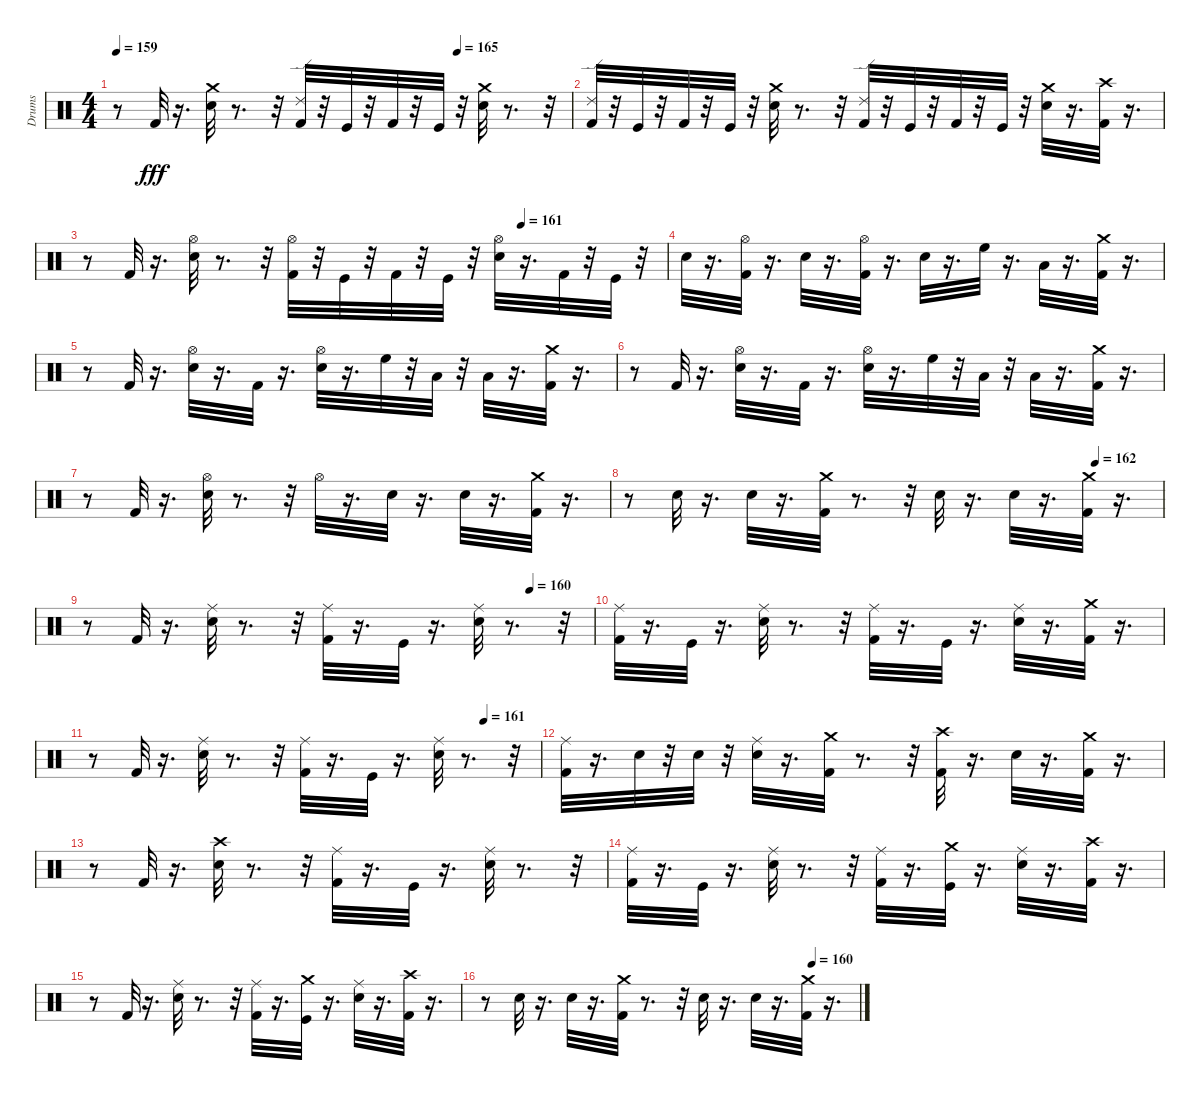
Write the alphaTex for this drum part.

\track ("Drums" "Drums") {instrument percussion}
\staff {score}
\articulation defaults
\ts (4 4)
\tempo 159
\tempo (165 0.75)
\clef neutral
\ks c
r.8{dy fff} "Kick (hit) 2".32 r.16{d} ("Crash medium (hit)" "Snare (hit) 2").32 r.8{d} r.32 ("Ride (edge) 2" "Kick (hit) 2").32 r.32 "Kick (hit)".32 r.32 "Kick (hit) 2".32 r.32 "Kick (hit)".32 r.32 ("Crash medium (hit)" "Snare (hit) 2").32 r.8{d} r.32 |
("Kick (hit) 2" "Ride (edge) 2").32 r.32 "Kick (hit)".32 r.32 "Kick (hit) 2".32 r.32 "Kick (hit)".32 r.32 ("Snare (hit) 2" "Crash medium (hit)").32 r.8{d} r.32 ("Kick (hit) 2" "Ride (edge) 2").32 r.32 "Kick (hit)".32 r.32 "Kick (hit) 2".32 r.32 "Kick (hit)".32 r.32 ("Snare (hit) 2" "Crash medium (hit)").32 r.16{d} ("Kick (hit) 2" "Crash high (hit)").32 r.16{d} |
\tempo (161 0.75)
r.8 "Kick (hit) 2".32 r.16{d} ("Snare (hit) 2" "Hi-Hat (open)").32 r.8{d} r.32 ("Kick (hit) 2" "Hi-Hat (open)").32 r.32 "Kick (hit)".32 r.32 "Kick (hit) 2".32 r.32 "Kick (hit)".32 r.32 ("Snare (hit) 2" "Hi-Hat (open)").32 r.16{d} "Kick (hit) 2".32 r.32 "Kick (hit)".32 r.32 |
"Snare (hit) 2".32 r.16{d} ("Kick (hit) 2" "Hi-Hat (open)").32 r.16{d} "Snare (hit) 2".32 r.16{d} ("Kick (hit) 2" "Hi-Hat (open)").32 r.16{d} "Snare (hit) 2".32 r.16{d} "High Floor Tom (hit)".32 r.16{d} "Low Tom (hit)".32 r.16{d} ("Kick (hit) 2" "Crash medium (hit)").32 r.16{d} |
r.8 "Kick (hit) 2".32 r.16{d} ("Snare (hit) 2" "Hi-Hat (open)").32 r.16{d} "Kick (hit) 2".32 r.16{d} ("Snare (hit) 2" "Hi-Hat (open)").32 r.16{d} "High Floor Tom (hit)".32 r.32 "Low Tom (hit)".32 r.32 "Low Floor Tom (hit)".32 r.16{d} ("Crash medium (hit)" "Kick (hit) 2").32 r.16{d} |
r.8 "Kick (hit) 2".32 r.16{d} ("Hi-Hat (open)" "Snare (hit) 2").32 r.16{d} "Kick (hit) 2".32 r.16{d} ("Snare (hit) 2" "Hi-Hat (open)").32 r.16{d} "High Floor Tom (hit)".32 r.32 "Low Tom (hit)".32 r.32 "Low Floor Tom (hit)".32 r.16{d} ("Crash medium (hit)" "Kick (hit) 2").32 r.16{d} |
r.8 "Kick (hit) 2".32 r.16{d} ("Snare (hit) 2" "Hi-Hat (open)").32 r.8{d} r.32 "Hi-Hat (open)".32 r.16{d} "Snare (hit) 2".32 r.16{d} "Snare (hit) 2".32 r.16{d} ("Crash medium (hit)" "Kick (hit) 2").32 r.16{d} |
\tempo (162 0.875)
r.8 "Snare (hit) 2".32 r.16{d} "Snare (hit) 2".32 r.16{d} ("Kick (hit) 2" "Crash medium (hit)").32 r.8{d} r.32 "Snare (hit) 2".32 r.16{d} "Snare (hit) 2".32 r.16{d} ("Crash medium (hit)" "Kick (hit) 2").32 r.16{d} |
\tempo (160 0.875)
r.8 "Kick (hit) 2".32 r.16{d} ("Snare (hit) 2" "Ride (middle)").32 r.8{d} r.32 ("Kick (hit) 2" "Ride (middle)").32 r.16{d} "Kick (hit)".32 r.16{d} ("Snare (hit) 2" "Ride (middle)").32 r.8{d} r.32 |
("Kick (hit) 2" "Ride (middle)").32 r.16{d} "Kick (hit)".32 r.16{d} ("Snare (hit) 2" "Ride (middle)").32 r.8{d} r.32 ("Ride (middle)" "Kick (hit) 2").32 r.16{d} "Kick (hit)".32 r.16{d} ("Snare (hit) 2" "Ride (middle)").32 r.16{d} ("Kick (hit) 2" "Crash medium (hit)").32 r.16{d} |
\tempo (161 0.875)
r.8 "Kick (hit) 2".32 r.16{d} ("Snare (hit) 2" "Ride (middle)").32 r.8{d} r.32 ("Kick (hit) 2" "Ride (middle)").32 r.16{d} "Kick (hit)".32 r.16{d} ("Snare (hit) 2" "Ride (middle)").32 r.8{d} r.32 |
("Kick (hit) 2" "Ride (middle)").32 r.16{d} "Snare (hit) 2".32 r.32 "Snare (hit) 2".32 r.32 ("Snare (hit) 2" "Ride (middle)").32 r.16{d} ("Kick (hit) 2" "Crash medium (hit)").32 r.8{d} r.32 ("Kick (hit) 2" "Crash high (hit)").32 r.16{d} "Snare (hit) 2".32 r.16{d} ("Kick (hit) 2" "Crash medium (hit)").32 r.16{d} |
r.8 "Kick (hit) 2".32 r.16{d} ("Snare (hit) 2" "Crash high (hit)").32 r.8{d} r.32 ("Kick (hit) 2" "Ride (middle)").32 r.16{d} "Kick (hit)".32 r.16{d} ("Snare (hit) 2" "Ride (middle)").32 r.8{d} r.32 |
("Kick (hit) 2" "Ride (middle)").32 r.16{d} "Kick (hit)".32 r.16{d} ("Snare (hit) 2" "Ride (middle)").32 r.8{d} r.32 ("Kick (hit) 2" "Ride (middle)").32 r.16{d} ("Kick (hit)" "Crash medium (hit)").32 r.16{d} ("Snare (hit) 2" "Ride (middle)").32 r.16{d} ("Kick (hit) 2" "Crash high (hit)").32 r.16{d} |
r.8 "Kick (hit) 2".32 r.16{d} ("Snare (hit) 2" "Ride (middle)").32 r.8{d} r.32 ("Kick (hit) 2" "Ride (middle)").32 r.16{d} ("Kick (hit)" "Crash medium (hit)").32 r.16{d} ("Snare (hit) 2" "Ride (middle)").32 r.16{d} ("Kick (hit) 2" "Crash high (hit)").32 r.16{d} |
\tempo (160 0.875)
r.8 "Snare (hit) 2".32 r.16{d} "Snare (hit) 2".32 r.16{d} ("Kick (hit) 2" "Crash medium (hit)").32 r.8{d} r.32 "Snare (hit) 2".32 r.16{d} "Snare (hit) 2".32 r.16{d} ("Kick (hit) 2" "Crash medium (hit)").32 r.16{d}
